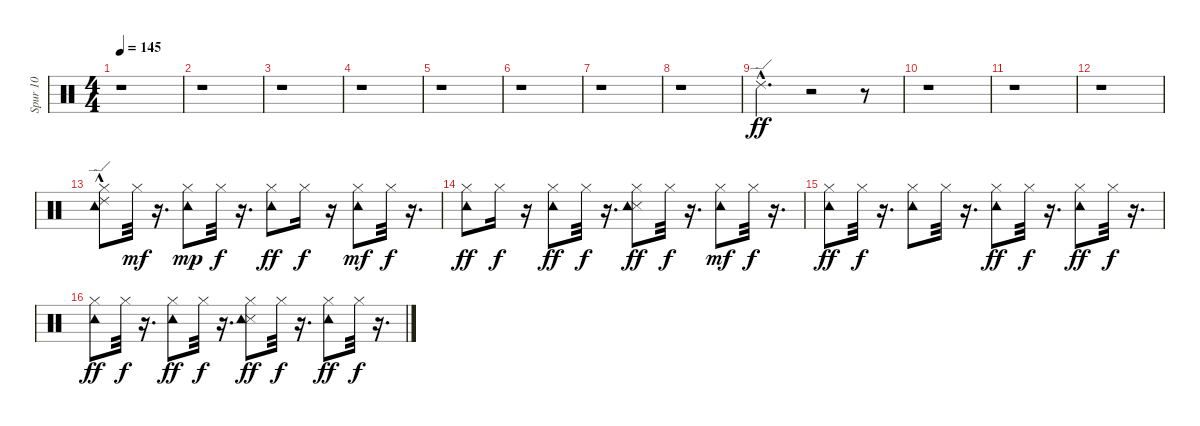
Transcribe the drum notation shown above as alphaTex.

\track ("Spur 10" "Spur 10") {instrument percussion}
\staff {score}
\articulation defaults
\ts (4 4)
\tempo 145
\clef neutral
\ks c
r.1{dy f} |
r.1 |
r.1 |
r.1 |
r.1 |
r.1 |
r.1 |
r.1 |
"Ride (edge) 2"{hac}.4{d dy ff} r.2 r.8 |
r.1 |
r.1 |
r.1 |
("Tambourine (hit)" "Hi-Hat (closed)" "Ride (edge) 2"{hac}).8 "Hi-Hat (closed)".32{dy mf} r.16{d} ("Tambourine (hit)" "Hi-Hat (closed)").8{dy mp} "Hi-Hat (closed)".32{dy f} r.16{d} ("Tambourine (hit)" "Hi-Hat (closed)").8{dy ff} "Hi-Hat (closed)".16{dy f} r.16 ("Tambourine (hit)" "Hi-Hat (closed)").8{dy mf} "Hi-Hat (closed)".32{dy f} r.16{d} |
("Tambourine (hit)" "Hi-Hat (closed)").8{dy ff} "Hi-Hat (closed)".16{dy f} r.16 ("Hi-Hat (closed)" "Tambourine (hit)").8{dy ff} "Hi-Hat (closed)".32{dy f} r.16{d} ("Snare (side stick) 3" "Tambourine (hit)" "Hi-Hat (closed)").8{dy ff} "Hi-Hat (closed)".32{dy f} r.16{d} ("Tambourine (hit)" "Hi-Hat (closed)").8{dy mf} "Hi-Hat (closed)".32{dy f} r.16{d} |
("Tambourine (hit)" "Hi-Hat (closed)").8{dy ff} "Hi-Hat (closed)".32{dy f} r.16{d} ("Tambourine (hit)" "Hi-Hat (closed)").8 "Hi-Hat (closed)".32 r.16{d} ("Tambourine (hit)" "Hi-Hat (closed)").8{dy ff} "Hi-Hat (closed)".32{dy f} r.16{d} ("Tambourine (hit)" "Hi-Hat (closed)").8{dy ff} "Hi-Hat (closed)".32{dy f} r.16{d} |
("Tambourine (hit)" "Hi-Hat (closed)").8{dy ff} "Hi-Hat (closed)".32{dy f} r.16{d} ("Tambourine (hit)" "Hi-Hat (closed)").8{dy ff} "Hi-Hat (closed)".32{dy f} r.16{d} ("Snare (side stick) 3" "Tambourine (hit)" "Hi-Hat (closed)").8{dy ff} "Hi-Hat (closed)".32{dy f} r.16{d} ("Tambourine (hit)" "Hi-Hat (closed)").8{dy ff} "Hi-Hat (closed)".32{dy f} r.16{d}
